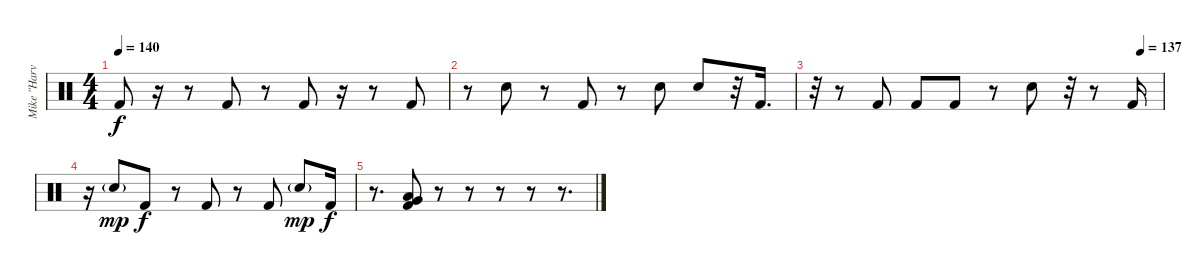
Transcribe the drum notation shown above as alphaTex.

\track ("Mike \"Harvey\" Kaabe" "Mike \"Harv") {instrument percussion}
\staff {score}
\articulation defaults
\ts (4 4)
\tempo 140
\clef neutral
\ks c "Kick (hit) 2".8{dy f}
r.16 r.8 "Kick (hit) 2".8 r.8 "Kick (hit) 2".8 r.16 r.8 "Kick (hit) 2".8 |
r.8 "Snare (hit) 2".8 r.8 "Kick (hit) 2".8 r.8 "Snare (hit) 2".8 "Snare (hit) 2".8 r.32 "Kick (hit) 2".16{d} |
\tempo (137 0.9375)
r.32 r.8 "Kick (hit) 2".8 "Kick (hit) 2".8 "Kick (hit) 2".8 r.8 "Snare (hit) 2".8 r.32 r.8 "Kick (hit) 2".16 |
r.16 "Snare (hit) 2"{g}.8{dy mp} "Kick (hit) 2".8{dy f} r.8 "Kick (hit) 2".8 r.8 "Kick (hit) 2".8 "Snare (hit) 2"{g}.8{dy mp} "Kick (hit) 2".16{dy f} |
r.8{d} ("Low Tom (hit)" "Very Low Tom (hit)" "Kick (hit) 2").8 r.8 r.8 r.8 r.8 r.8{d}
